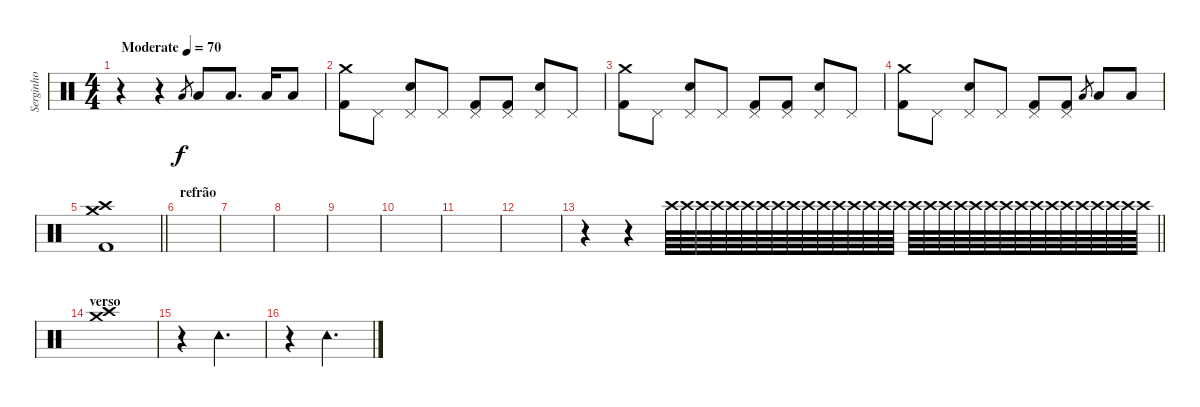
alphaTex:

\track ("Serginho" "Serginho") {instrument percussion}
\staff {score}
\articulation defaults
\ts (4 4)
\tempo (70 "Moderate")
\clef neutral
\ks c
r.4{dy f} r.4 "Low Tom (hit)".8{gr} "Low Tom (hit)".8 "Low Tom (hit)".8{d} "Low Tom (hit)".16 "Low Tom (hit)".8 |
("Crash medium (hit)" "Kick (hit) 2").8 "Pedal Hi-Hat (hit)".8 ("Pedal Hi-Hat (hit)" "Snare (hit) 2").8 "Pedal Hi-Hat (hit)".8 ("Pedal Hi-Hat (hit)" "Kick (hit) 2").8 ("Pedal Hi-Hat (hit)" "Kick (hit) 2").8 ("Pedal Hi-Hat (hit)" "Snare (hit) 2").8 "Pedal Hi-Hat (hit)".8 |
("Crash medium (hit)" "Kick (hit) 2").8 "Pedal Hi-Hat (hit)".8 ("Pedal Hi-Hat (hit)" "Snare (hit) 2").8 "Pedal Hi-Hat (hit)".8 ("Pedal Hi-Hat (hit)" "Kick (hit) 2").8 ("Pedal Hi-Hat (hit)" "Kick (hit) 2").8 ("Pedal Hi-Hat (hit)" "Snare (hit) 2").8 "Pedal Hi-Hat (hit)".8 |
("Crash medium (hit)" "Kick (hit) 2").8 "Pedal Hi-Hat (hit)".8 ("Pedal Hi-Hat (hit)" "Snare (hit) 2").8 "Pedal Hi-Hat (hit)".8 ("Pedal Hi-Hat (hit)" "Kick (hit) 2").8 ("Pedal Hi-Hat (hit)" "Kick (hit) 2").8 "Low Tom (hit)".8{gr} "Low Tom (hit)".8 "Low Tom (hit)".8 |
\barLineRight lightlight
("Crash medium (hit)" "Crash high (hit)" "Kick (hit) 2").1 |
\section ("" "refrão")
|
|
|
|
|
|
|
\barLineRight lightlight
r.4 r.4{volume 0} "Crash high (hit)".64{volume 14} "Crash high (hit)".64 "Crash high (hit)".64 "Crash high (hit)".64 "Crash high (hit)".64 "Crash high (hit)".64 "Crash high (hit)".64 "Crash high (hit)".64 "Crash high (hit)".64 "Crash high (hit)".64 "Crash high (hit)".64 "Crash high (hit)".64 "Crash high (hit)".64 "Crash high (hit)".64 "Crash high (hit)".64 "Crash high (hit)".64 "Crash high (hit)".64 "Crash high (hit)".64 "Crash high (hit)".64 "Crash high (hit)".64 "Crash high (hit)".64 "Crash high (hit)".64 "Crash high (hit)".64 "Crash high (hit)".64 "Crash high (hit)".64 "Crash high (hit)".64 "Crash high (hit)".64 "Crash high (hit)".64 "Crash high (hit)".64 "Crash high (hit)".64 "Crash high (hit)".64 "Crash high (hit)".64 |
\section ("" "verso")
("Crash medium (hit)" "Crash high (hit)").1 |
r.4 "Tambourine (hit)".2{d} |
r.4 "Tambourine (hit)".2{d}
